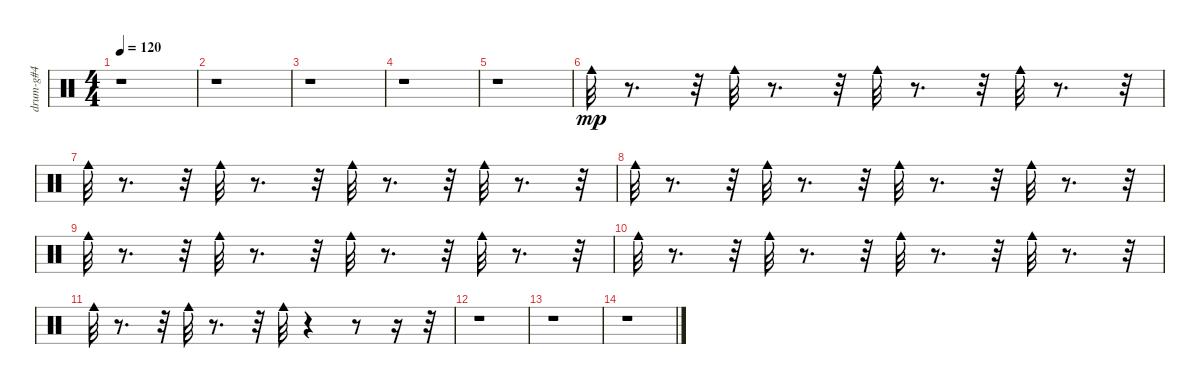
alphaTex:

\track ("drum-g#4" "drum-g#4") {instrument percussion}
\staff {score}
\articulation defaults
\ts (4 4)
\tempo 120
\clef neutral
\ks c
r.1{dy mp} |
r.1 |
r.1 |
r.1 |
r.1 |
"Cowbell medium (hit)".32 r.8{d} r.32 "Cowbell medium (hit)".32 r.8{d} r.32 "Cowbell medium (hit)".32 r.8{d} r.32 "Cowbell medium (hit)".32 r.8{d} r.32 |
"Cowbell medium (hit)".32 r.8{d} r.32 "Cowbell medium (hit)".32 r.8{d} r.32 "Cowbell medium (hit)".32 r.8{d} r.32 "Cowbell medium (hit)".32 r.8{d} r.32 |
"Cowbell medium (hit)".32 r.8{d} r.32 "Cowbell medium (hit)".32 r.8{d} r.32 "Cowbell medium (hit)".32 r.8{d} r.32 "Cowbell medium (hit)".32 r.8{d} r.32 |
"Cowbell medium (hit)".32 r.8{d} r.32 "Cowbell medium (hit)".32 r.8{d} r.32 "Cowbell medium (hit)".32 r.8{d} r.32 "Cowbell medium (hit)".32 r.8{d} r.32 |
"Cowbell medium (hit)".32 r.8{d} r.32 "Cowbell medium (hit)".32 r.8{d} r.32 "Cowbell medium (hit)".32 r.8{d} r.32 "Cowbell medium (hit)".32 r.8{d} r.32 |
"Cowbell medium (hit)".32 r.8{d} r.32 "Cowbell medium (hit)".32 r.8{d} r.32 "Cowbell medium (hit)".32 r.4 r.8 r.16 r.32 |
r.1 |
r.1 |
r.1
